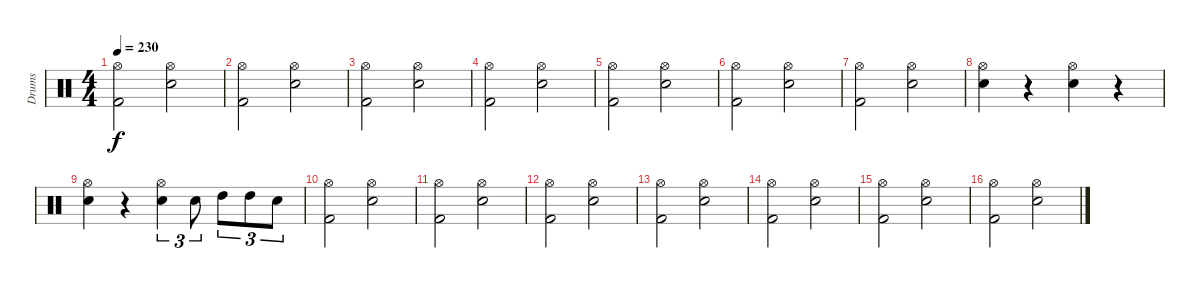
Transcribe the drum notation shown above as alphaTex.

\track ("Drums" "Drums") {instrument percussion}
\staff {score}
\articulation defaults
\ts (4 4)
\tempo 230
\clef neutral
\ks c
("Hi-Hat (open)" "Kick (hit) 2").2{dy f} ("Hi-Hat (open)" "Electric Snare (hit)").2 |
("Hi-Hat (open)" "Kick (hit) 2").2 ("Hi-Hat (open)" "Electric Snare (hit)").2 |
("Hi-Hat (open)" "Kick (hit) 2").2 ("Hi-Hat (open)" "Electric Snare (hit)").2 |
("Hi-Hat (open)" "Kick (hit) 2").2 ("Hi-Hat (open)" "Electric Snare (hit)").2 |
("Hi-Hat (open)" "Kick (hit) 2").2 ("Hi-Hat (open)" "Electric Snare (hit)").2 |
("Hi-Hat (open)" "Kick (hit) 2").2 ("Hi-Hat (open)" "Electric Snare (hit)").2 |
("Hi-Hat (open)" "Kick (hit) 2").2 ("Hi-Hat (open)" "Electric Snare (hit)").2 |
("Hi-Hat (open)" "Electric Snare (hit)").4 r.4 ("Hi-Hat (open)" "Electric Snare (hit)").4 r.4 |
("Hi-Hat (open)" "Electric Snare (hit)").4 r.4 ("Hi-Hat (open)" "Electric Snare (hit)").4{tu (3 2)} "Electric Snare (hit)".8{tu (3 2)} "High Tom (hit)".8{tu (3 2)} "High Tom (hit)".8{tu (3 2)} "Electric Snare (hit)".8{tu (3 2)} |
("Hi-Hat (open)" "Kick (hit) 2").2 ("Hi-Hat (open)" "Electric Snare (hit)").2 |
("Hi-Hat (open)" "Kick (hit) 2").2 ("Hi-Hat (open)" "Electric Snare (hit)").2 |
("Hi-Hat (open)" "Kick (hit) 2").2 ("Hi-Hat (open)" "Electric Snare (hit)").2 |
("Hi-Hat (open)" "Kick (hit) 2").2 ("Hi-Hat (open)" "Electric Snare (hit)").2 |
("Hi-Hat (open)" "Kick (hit) 2").2 ("Hi-Hat (open)" "Electric Snare (hit)").2 |
("Hi-Hat (open)" "Kick (hit) 2").2 ("Hi-Hat (open)" "Electric Snare (hit)").2 |
("Hi-Hat (open)" "Kick (hit) 2").2 ("Hi-Hat (open)" "Electric Snare (hit)").2
